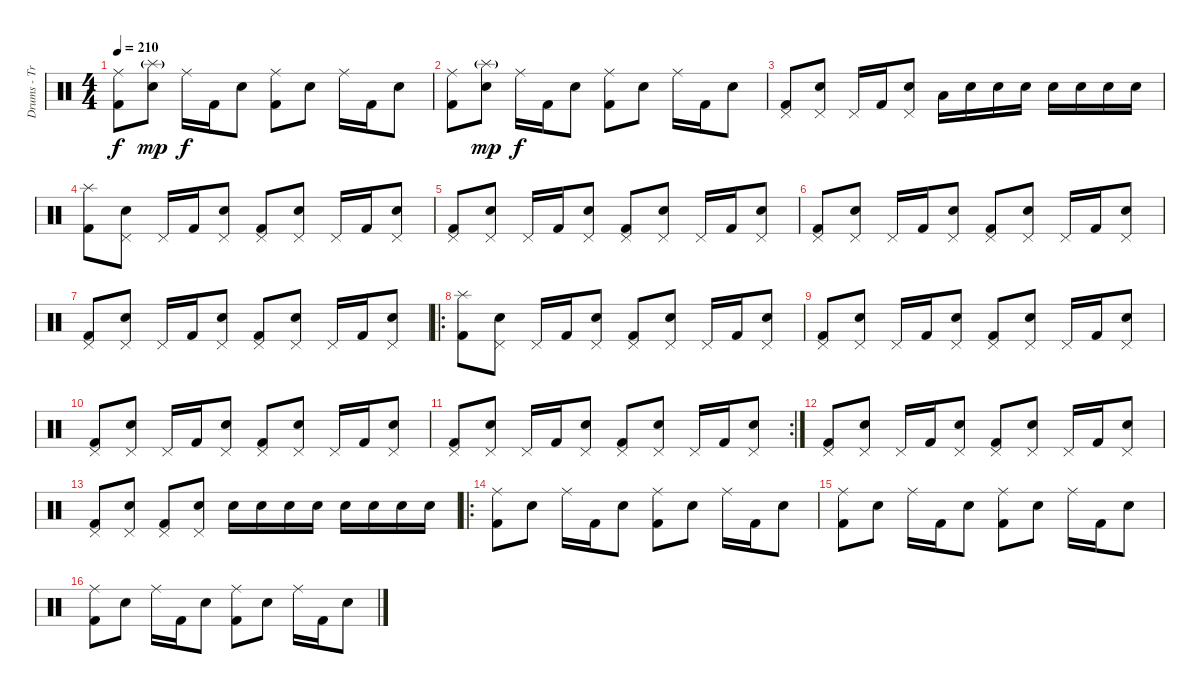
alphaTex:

\track ("Drums - Travis Barker" "Drums - Tr") {instrument percussion}
\staff {score}
\articulation defaults
\ts (4 4)
\tempo 210
\clef neutral
\ks c
("Ride (middle)" "Kick (hit) 2").8{dy f} ("Splash (hit)"{g} "Electric Snare (hit)").8{dy mp} "Ride (middle)".16{dy f} "Kick (hit) 2".16 "Electric Snare (hit)".8 ("Ride (middle)" "Kick (hit) 2").8 "Electric Snare (hit)".8 "Ride (middle)".16 "Kick (hit) 2".16 "Electric Snare (hit)".8 |
("Ride (middle)" "Kick (hit) 2").8 ("Splash (hit)"{g} "Electric Snare (hit)").8{dy mp} "Ride (middle)".16{dy f} "Kick (hit) 2".16 "Electric Snare (hit)".8 ("Ride (middle)" "Kick (hit) 2").8 "Electric Snare (hit)".8 "Ride (middle)".16 "Kick (hit) 2".16 "Electric Snare (hit)".8 |
("Pedal Hi-Hat (hit)" "Kick (hit) 2").8 ("Pedal Hi-Hat (hit)" "Electric Snare (hit)").8 "Pedal Hi-Hat (hit)".16 "Kick (hit) 2".16 ("Pedal Hi-Hat (hit)" "Electric Snare (hit)").8 "Low Tom (hit)".16 "Electric Snare (hit)".16 "Electric Snare (hit)".16 "Electric Snare (hit)".16 "Electric Snare (hit)".16 "Electric Snare (hit)".16 "Electric Snare (hit)".16 "Electric Snare (hit)".16 |
("Splash (hit)" "Kick (hit) 2").8 ("Pedal Hi-Hat (hit)" "Electric Snare (hit)").8 "Pedal Hi-Hat (hit)".16 "Kick (hit) 2".16 ("Pedal Hi-Hat (hit)" "Electric Snare (hit)").8 ("Pedal Hi-Hat (hit)" "Kick (hit) 2").8 ("Pedal Hi-Hat (hit)" "Electric Snare (hit)").8 "Pedal Hi-Hat (hit)".16 "Kick (hit) 2".16 ("Pedal Hi-Hat (hit)" "Electric Snare (hit)").8 |
("Pedal Hi-Hat (hit)" "Kick (hit) 2").8 ("Pedal Hi-Hat (hit)" "Electric Snare (hit)").8 "Pedal Hi-Hat (hit)".16 "Kick (hit) 2".16 ("Pedal Hi-Hat (hit)" "Electric Snare (hit)").8 ("Pedal Hi-Hat (hit)" "Kick (hit) 2").8 ("Pedal Hi-Hat (hit)" "Electric Snare (hit)").8 "Pedal Hi-Hat (hit)".16 "Kick (hit) 2".16 ("Pedal Hi-Hat (hit)" "Electric Snare (hit)").8 |
("Pedal Hi-Hat (hit)" "Kick (hit) 2").8 ("Pedal Hi-Hat (hit)" "Electric Snare (hit)").8 "Pedal Hi-Hat (hit)".16 "Kick (hit) 2".16 ("Pedal Hi-Hat (hit)" "Electric Snare (hit)").8 ("Pedal Hi-Hat (hit)" "Kick (hit) 2").8 ("Pedal Hi-Hat (hit)" "Electric Snare (hit)").8 "Pedal Hi-Hat (hit)".16 "Kick (hit) 2".16 ("Pedal Hi-Hat (hit)" "Electric Snare (hit)").8 |
("Pedal Hi-Hat (hit)" "Kick (hit) 2").8 ("Pedal Hi-Hat (hit)" "Electric Snare (hit)").8 "Pedal Hi-Hat (hit)".16 "Kick (hit) 2".16 ("Pedal Hi-Hat (hit)" "Electric Snare (hit)").8 ("Pedal Hi-Hat (hit)" "Kick (hit) 2").8 ("Pedal Hi-Hat (hit)" "Electric Snare (hit)").8 "Pedal Hi-Hat (hit)".16 "Kick (hit) 2".16 ("Pedal Hi-Hat (hit)" "Electric Snare (hit)").8 |
\ro
("Splash (hit)" "Kick (hit) 2").8 ("Pedal Hi-Hat (hit)" "Electric Snare (hit)").8 "Pedal Hi-Hat (hit)".16 "Kick (hit) 2".16 ("Pedal Hi-Hat (hit)" "Electric Snare (hit)").8 ("Pedal Hi-Hat (hit)" "Kick (hit) 2").8 ("Pedal Hi-Hat (hit)" "Electric Snare (hit)").8 "Pedal Hi-Hat (hit)".16 "Kick (hit) 2".16 ("Pedal Hi-Hat (hit)" "Electric Snare (hit)").8 |
("Pedal Hi-Hat (hit)" "Kick (hit) 2").8 ("Pedal Hi-Hat (hit)" "Electric Snare (hit)").8 "Pedal Hi-Hat (hit)".16 "Kick (hit) 2".16 ("Pedal Hi-Hat (hit)" "Electric Snare (hit)").8 ("Pedal Hi-Hat (hit)" "Kick (hit) 2").8 ("Pedal Hi-Hat (hit)" "Electric Snare (hit)").8 "Pedal Hi-Hat (hit)".16 "Kick (hit) 2".16 ("Pedal Hi-Hat (hit)" "Electric Snare (hit)").8 |
("Pedal Hi-Hat (hit)" "Kick (hit) 2").8 ("Pedal Hi-Hat (hit)" "Electric Snare (hit)").8 "Pedal Hi-Hat (hit)".16 "Kick (hit) 2".16 ("Pedal Hi-Hat (hit)" "Electric Snare (hit)").8 ("Pedal Hi-Hat (hit)" "Kick (hit) 2").8 ("Pedal Hi-Hat (hit)" "Electric Snare (hit)").8 "Pedal Hi-Hat (hit)".16 "Kick (hit) 2".16 ("Pedal Hi-Hat (hit)" "Electric Snare (hit)").8 |
\rc 2
("Pedal Hi-Hat (hit)" "Kick (hit) 2").8 ("Pedal Hi-Hat (hit)" "Electric Snare (hit)").8 "Pedal Hi-Hat (hit)".16 "Kick (hit) 2".16 ("Pedal Hi-Hat (hit)" "Electric Snare (hit)").8 ("Pedal Hi-Hat (hit)" "Kick (hit) 2").8 ("Pedal Hi-Hat (hit)" "Electric Snare (hit)").8 "Pedal Hi-Hat (hit)".16 "Kick (hit) 2".16 ("Pedal Hi-Hat (hit)" "Electric Snare (hit)").8 |
("Pedal Hi-Hat (hit)" "Kick (hit) 2").8 ("Pedal Hi-Hat (hit)" "Electric Snare (hit)").8 "Pedal Hi-Hat (hit)".16 "Kick (hit) 2".16 ("Pedal Hi-Hat (hit)" "Electric Snare (hit)").8 ("Pedal Hi-Hat (hit)" "Kick (hit) 2").8 ("Pedal Hi-Hat (hit)" "Electric Snare (hit)").8 "Pedal Hi-Hat (hit)".16 "Kick (hit) 2".16 ("Pedal Hi-Hat (hit)" "Electric Snare (hit)").8 |
("Pedal Hi-Hat (hit)" "Kick (hit) 2").8 ("Pedal Hi-Hat (hit)" "Electric Snare (hit)").8 ("Pedal Hi-Hat (hit)" "Kick (hit) 2").8 ("Pedal Hi-Hat (hit)" "Electric Snare (hit)").8 "Electric Snare (hit)".16 "Electric Snare (hit)".16 "Electric Snare (hit)".16 "Electric Snare (hit)".16 "Electric Snare (hit)".16 "Electric Snare (hit)".16 "Electric Snare (hit)".16 "Electric Snare (hit)".16 |
\ro
("Ride (middle)" "Kick (hit) 2").8 "Electric Snare (hit)".8 "Ride (middle)".16 "Kick (hit) 2".16 "Electric Snare (hit)".8 ("Ride (middle)" "Kick (hit) 2").8 "Electric Snare (hit)".8 "Ride (middle)".16 "Kick (hit) 2".16 "Electric Snare (hit)".8 |
("Ride (middle)" "Kick (hit) 2").8 "Electric Snare (hit)".8 "Ride (middle)".16 "Kick (hit) 2".16 "Electric Snare (hit)".8 ("Ride (middle)" "Kick (hit) 2").8 "Electric Snare (hit)".8 "Ride (middle)".16 "Kick (hit) 2".16 "Electric Snare (hit)".8 |
("Ride (middle)" "Kick (hit) 2").8 "Electric Snare (hit)".8 "Ride (middle)".16 "Kick (hit) 2".16 "Electric Snare (hit)".8 ("Ride (middle)" "Kick (hit) 2").8 "Electric Snare (hit)".8 "Ride (middle)".16 "Kick (hit) 2".16 "Electric Snare (hit)".8
